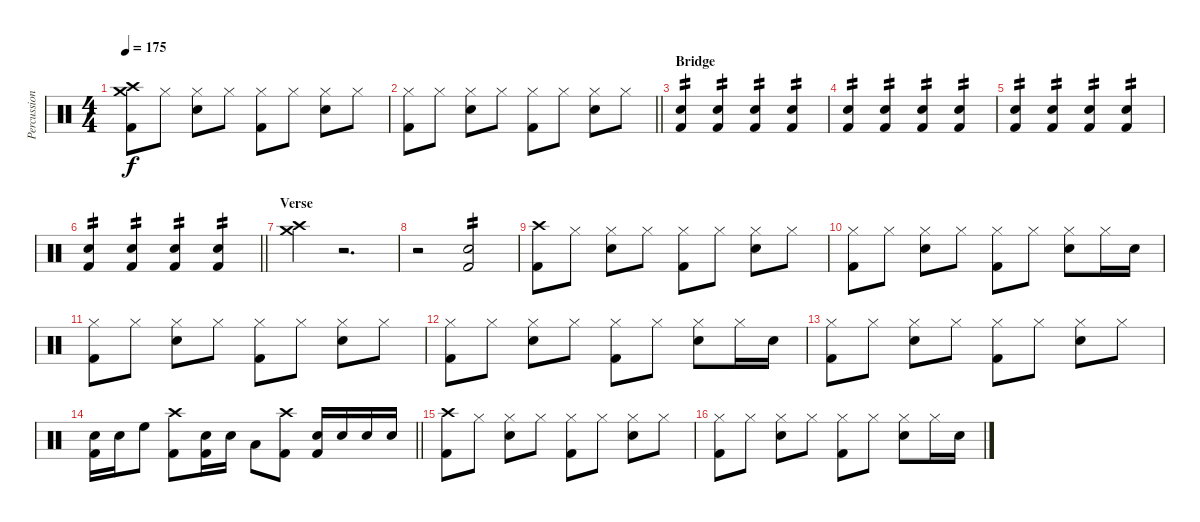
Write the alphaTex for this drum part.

\track ("Percussion" "Percussion") {instrument percussion}
\staff {score}
\articulation defaults
\ts (4 4)
\tempo 175
\clef neutral
\ks c
("Crash high (hit)" "Crash medium (hit)" "Kick (hit) 2").8{dy f} "Hi-Hat (closed)".8 ("Hi-Hat (closed)" "Snare (hit) 2").8 "Hi-Hat (closed)".8 ("Hi-Hat (closed)" "Kick (hit) 2").8 "Hi-Hat (closed)".8 ("Hi-Hat (closed)" "Snare (hit) 2").8 "Hi-Hat (closed)".8 |
\barLineRight lightlight
("Hi-Hat (closed)" "Kick (hit) 2").8 "Hi-Hat (closed)".8 ("Hi-Hat (closed)" "Snare (hit) 2").8 "Hi-Hat (closed)".8 ("Hi-Hat (closed)" "Kick (hit) 2").8 "Hi-Hat (closed)".8 ("Hi-Hat (closed)" "Snare (hit) 2").8 "Hi-Hat (closed)".8 |
\section ("" "Bridge")
("Snare (hit) 2" "Kick (hit) 2").4{tp 2} ("Snare (hit) 2" "Kick (hit) 2").4{tp 2} ("Snare (hit) 2" "Kick (hit) 2").4{tp 2} ("Snare (hit) 2" "Kick (hit) 2").4{tp 2} |
("Snare (hit) 2" "Kick (hit) 2").4{tp 2} ("Snare (hit) 2" "Kick (hit) 2").4{tp 2} ("Snare (hit) 2" "Kick (hit) 2").4{tp 2} ("Snare (hit) 2" "Kick (hit) 2").4{tp 2} |
("Snare (hit) 2" "Kick (hit) 2").4{tp 2} ("Snare (hit) 2" "Kick (hit) 2").4{tp 2} ("Snare (hit) 2" "Kick (hit) 2").4{tp 2} ("Snare (hit) 2" "Kick (hit) 2").4{tp 2} |
\barLineRight lightlight
("Snare (hit) 2" "Kick (hit) 2").4{tp 2} ("Snare (hit) 2" "Kick (hit) 2").4{tp 2} ("Snare (hit) 2" "Kick (hit) 2").4{tp 2} ("Snare (hit) 2" "Kick (hit) 2").4{tp 2} |
\section ("" "Verse")
("Crash high (hit)" "Crash medium (hit)").4 r.2{d} |
r.2 ("Snare (hit) 2" "Kick (hit) 2").2{tp 2} |
("Crash high (hit)" "Kick (hit) 2").8 "Hi-Hat (closed)".8 ("Hi-Hat (closed)" "Snare (hit) 2").8 "Hi-Hat (closed)".8 ("Hi-Hat (closed)" "Kick (hit) 2").8 "Hi-Hat (closed)".8 ("Hi-Hat (closed)" "Snare (hit) 2").8 "Hi-Hat (closed)".8 |
("Hi-Hat (closed)" "Kick (hit) 2").8 "Hi-Hat (closed)".8 ("Hi-Hat (closed)" "Snare (hit) 2").8 "Hi-Hat (closed)".8 ("Hi-Hat (closed)" "Kick (hit) 2").8 "Hi-Hat (closed)".8 ("Hi-Hat (closed)" "Snare (hit) 2").8 "Hi-Hat (closed)".16 "Snare (hit) 2".16 |
("Hi-Hat (closed)" "Kick (hit) 2").8 "Hi-Hat (closed)".8 ("Hi-Hat (closed)" "Snare (hit) 2").8 "Hi-Hat (closed)".8 ("Hi-Hat (closed)" "Kick (hit) 2").8 "Hi-Hat (closed)".8 ("Hi-Hat (closed)" "Snare (hit) 2").8 "Hi-Hat (closed)".8 |
("Hi-Hat (closed)" "Kick (hit) 2").8 "Hi-Hat (closed)".8 ("Hi-Hat (closed)" "Snare (hit) 2").8 "Hi-Hat (closed)".8 ("Hi-Hat (closed)" "Kick (hit) 2").8 "Hi-Hat (closed)".8 ("Hi-Hat (closed)" "Snare (hit) 2").8 "Hi-Hat (closed)".16 "Snare (hit) 2".16 |
("Hi-Hat (closed)" "Kick (hit) 2").8 "Hi-Hat (closed)".8 ("Hi-Hat (closed)" "Snare (hit) 2").8 "Hi-Hat (closed)".8 ("Hi-Hat (closed)" "Kick (hit) 2").8 "Hi-Hat (closed)".8 ("Hi-Hat (closed)" "Snare (hit) 2").8 "Hi-Hat (closed)".8 |
\barLineRight lightlight
("Snare (hit) 2" "Kick (hit) 2").16 "Snare (hit) 2".16 "High Floor Tom (hit)".8 ("Crash high (hit)" "Kick (hit) 2").8 ("Snare (hit) 2" "Kick (hit) 2").16 "Snare (hit) 2".16 "Low Floor Tom (hit)".8 ("Crash high (hit)" "Kick (hit) 2").8 ("Snare (hit) 2" "Kick (hit) 2").16 "Snare (hit) 2".16 "Snare (hit) 2".16 "Snare (hit) 2".16 |
("Crash high (hit)" "Kick (hit) 2").8 "Hi-Hat (closed)".8 ("Hi-Hat (closed)" "Snare (hit) 2").8 "Hi-Hat (closed)".8 ("Hi-Hat (closed)" "Kick (hit) 2").8 "Hi-Hat (closed)".8 ("Hi-Hat (closed)" "Snare (hit) 2").8 "Hi-Hat (closed)".8 |
("Hi-Hat (closed)" "Kick (hit) 2").8 "Hi-Hat (closed)".8 ("Hi-Hat (closed)" "Snare (hit) 2").8 "Hi-Hat (closed)".8 ("Hi-Hat (closed)" "Kick (hit) 2").8 "Hi-Hat (closed)".8 ("Hi-Hat (closed)" "Snare (hit) 2").8 "Hi-Hat (closed)".16 "Snare (hit) 2".16
